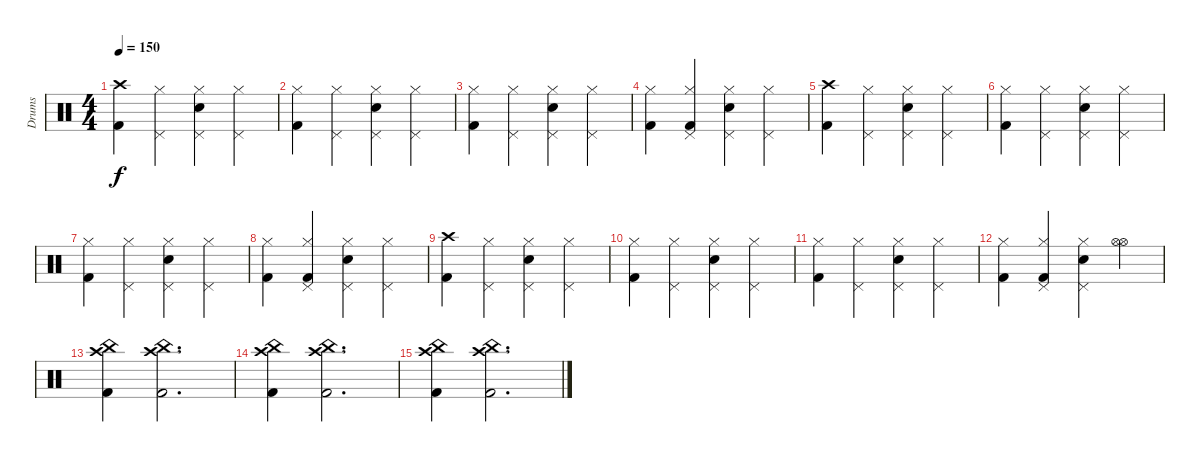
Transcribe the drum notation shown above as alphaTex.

\track ("Drums" "Drums") {instrument percussion}
\staff {score}
\articulation defaults
\ts (4 4)
\tempo 150
\clef neutral
\ks c
("Crash high (hit)" "Kick (hit) 2").4{dy f} ("Hi-Hat (closed)" "Pedal Hi-Hat (hit)").4 ("Hi-Hat (closed)" "Pedal Hi-Hat (hit)" "Electric Snare (hit)").4 ("Hi-Hat (closed)" "Pedal Hi-Hat (hit)").4 |
("Hi-Hat (closed)" "Kick (hit) 2").4 ("Hi-Hat (closed)" "Pedal Hi-Hat (hit)").4 ("Hi-Hat (closed)" "Pedal Hi-Hat (hit)" "Electric Snare (hit)").4 ("Hi-Hat (closed)" "Pedal Hi-Hat (hit)").4 |
("Hi-Hat (closed)" "Kick (hit) 2").4 ("Hi-Hat (closed)" "Pedal Hi-Hat (hit)").4 ("Hi-Hat (closed)" "Pedal Hi-Hat (hit)" "Electric Snare (hit)").4 ("Hi-Hat (closed)" "Pedal Hi-Hat (hit)").4 |
("Hi-Hat (closed)" "Kick (hit) 2").4 ("Hi-Hat (closed)" "Pedal Hi-Hat (hit)" "Kick (hit) 2").4 ("Hi-Hat (closed)" "Pedal Hi-Hat (hit)" "Electric Snare (hit)").4 ("Hi-Hat (closed)" "Pedal Hi-Hat (hit)").4 |
("Crash high (hit)" "Kick (hit) 2").4 ("Hi-Hat (closed)" "Pedal Hi-Hat (hit)").4 ("Hi-Hat (closed)" "Pedal Hi-Hat (hit)" "Electric Snare (hit)").4 ("Hi-Hat (closed)" "Pedal Hi-Hat (hit)").4 |
("Hi-Hat (closed)" "Kick (hit) 2").4 ("Hi-Hat (closed)" "Pedal Hi-Hat (hit)").4 ("Hi-Hat (closed)" "Pedal Hi-Hat (hit)" "Electric Snare (hit)").4 ("Hi-Hat (closed)" "Pedal Hi-Hat (hit)").4 |
("Hi-Hat (closed)" "Kick (hit) 2").4 ("Hi-Hat (closed)" "Pedal Hi-Hat (hit)").4 ("Hi-Hat (closed)" "Pedal Hi-Hat (hit)" "Electric Snare (hit)").4 ("Hi-Hat (closed)" "Pedal Hi-Hat (hit)").4 |
("Hi-Hat (closed)" "Kick (hit) 2").4 ("Hi-Hat (closed)" "Pedal Hi-Hat (hit)" "Kick (hit) 2").4 ("Hi-Hat (closed)" "Pedal Hi-Hat (hit)" "Electric Snare (hit)").4 ("Hi-Hat (closed)" "Pedal Hi-Hat (hit)").4 |
("Crash high (hit)" "Kick (hit) 2").4 ("Hi-Hat (closed)" "Pedal Hi-Hat (hit)").4 ("Hi-Hat (closed)" "Pedal Hi-Hat (hit)" "Electric Snare (hit)").4 ("Hi-Hat (closed)" "Pedal Hi-Hat (hit)").4 |
("Hi-Hat (closed)" "Kick (hit) 2").4 ("Hi-Hat (closed)" "Pedal Hi-Hat (hit)").4 ("Hi-Hat (closed)" "Pedal Hi-Hat (hit)" "Electric Snare (hit)").4 ("Hi-Hat (closed)" "Pedal Hi-Hat (hit)").4 |
("Hi-Hat (closed)" "Kick (hit) 2").4 ("Hi-Hat (closed)" "Pedal Hi-Hat (hit)").4 ("Hi-Hat (closed)" "Pedal Hi-Hat (hit)" "Electric Snare (hit)").4 ("Hi-Hat (closed)" "Pedal Hi-Hat (hit)").4 |
("Hi-Hat (closed)" "Kick (hit) 2").4 ("Hi-Hat (closed)" "Pedal Hi-Hat (hit)" "Kick (hit) 2").4 ("Hi-Hat (closed)" "Pedal Hi-Hat (hit)" "Electric Snare (hit)").4 ("Hi-Hat (open)" "Hi-Hat (open)").4 |
("Crash high (hit)" "China (hit)" "Kick (hit) 2").4 ("Crash high (hit)" "China (hit)" "Kick (hit) 2").2{d} |
("Crash high (hit)" "China (hit)" "Kick (hit) 2").4 ("Crash high (hit)" "China (hit)" "Kick (hit) 2").2{d} |
("Crash high (hit)" "China (hit)" "Kick (hit) 2").4 ("Crash high (hit)" "China (hit)" "Kick (hit) 2").2{d}
